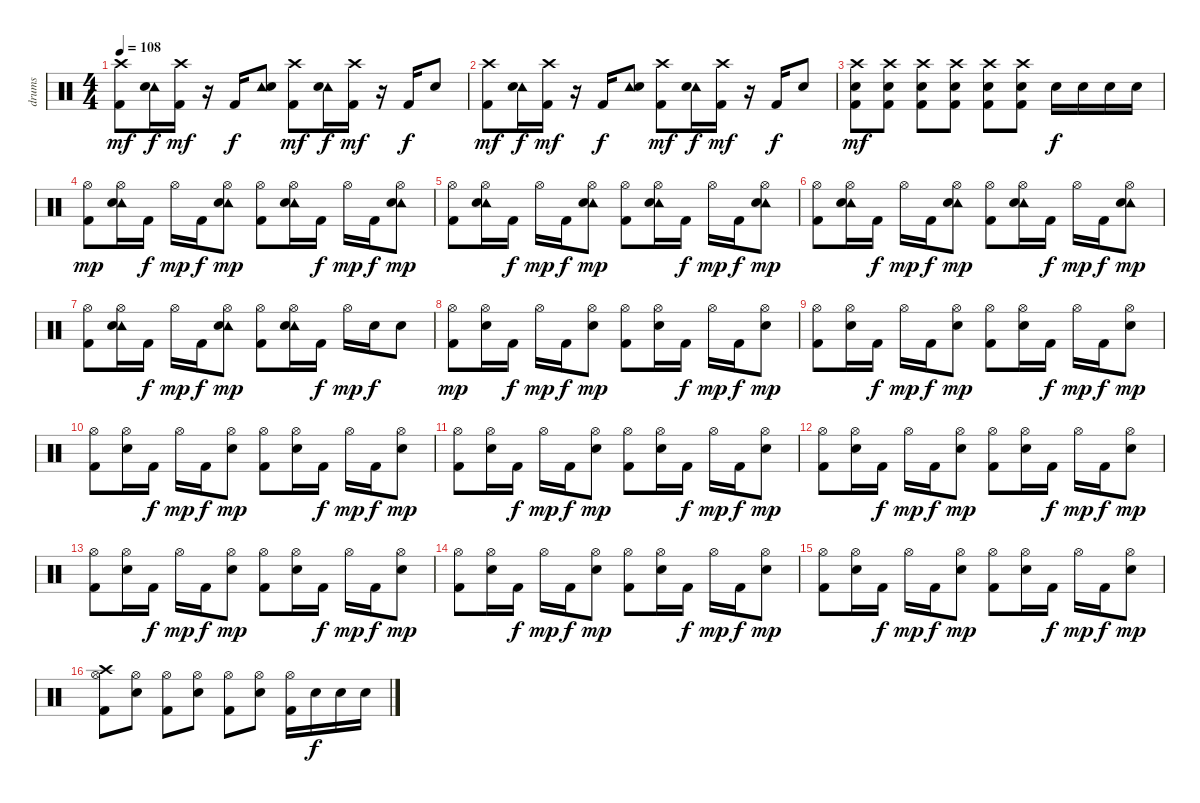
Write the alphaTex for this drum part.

\track ("drums" "drums") {instrument percussion}
\staff {score}
\articulation defaults
\ts (4 4)
\tempo 108
\clef neutral
\ks c
("Crash high (hit)" "Kick (hit) 2").8{dy mf} ("Tambourine (hit)" "Snare (hit) 2").16{dy f} ("Crash high (hit)" "Kick (hit) 2").16{dy mf} r.16 "Kick (hit) 2".16{dy f} ("Tambourine (hit)" "Snare (hit) 2").8 ("Crash high (hit)" "Kick (hit) 2").8{dy mf} ("Tambourine (hit)" "Snare (hit) 2").16{dy f} ("Crash high (hit)" "Kick (hit) 2").16{dy mf} r.16 "Kick (hit) 2".16{dy f} "Snare (hit) 2".8 |
("Crash high (hit)" "Kick (hit) 2").8{dy mf} ("Tambourine (hit)" "Snare (hit) 2").16{dy f} ("Crash high (hit)" "Kick (hit) 2").16{dy mf} r.16 "Kick (hit) 2".16{dy f} ("Tambourine (hit)" "Snare (hit) 2").8 ("Crash high (hit)" "Kick (hit) 2").8{dy mf} ("Tambourine (hit)" "Snare (hit) 2").16{dy f} ("Crash high (hit)" "Kick (hit) 2").16{dy mf} r.16 "Kick (hit) 2".16{dy f} "Snare (hit) 2".8 |
("Crash high (hit)" "Snare (hit) 2" "Kick (hit) 2").8{dy mf} ("Crash high (hit)" "Snare (hit) 2" "Kick (hit) 2").8 ("Crash high (hit)" "Snare (hit) 2" "Kick (hit) 2").8 ("Crash high (hit)" "Snare (hit) 2" "Kick (hit) 2").8 ("Crash high (hit)" "Snare (hit) 2" "Kick (hit) 2").8 ("Crash high (hit)" "Snare (hit) 2" "Kick (hit) 2").8 "Snare (hit) 2".16{dy f} "Snare (hit) 2".16 "Snare (hit) 2".16 "Snare (hit) 2".16 |
("Hi-Hat (open)" "Kick (hit) 2").8{dy mp} ("Tambourine (hit)" "Hi-Hat (open)" "Snare (hit) 2").16 "Kick (hit) 2".16{dy f} "Hi-Hat (open)".16{dy mp} "Kick (hit) 2".16{dy f} ("Tambourine (hit)" "Hi-Hat (open)" "Snare (hit) 2").8{dy mp} ("Hi-Hat (open)" "Kick (hit) 2").8 ("Tambourine (hit)" "Hi-Hat (open)" "Snare (hit) 2").16 "Kick (hit) 2".16{dy f} "Hi-Hat (open)".16{dy mp} "Kick (hit) 2".16{dy f} ("Tambourine (hit)" "Hi-Hat (open)" "Snare (hit) 2").8{dy mp} |
("Hi-Hat (open)" "Kick (hit) 2").8 ("Tambourine (hit)" "Hi-Hat (open)" "Snare (hit) 2").16 "Kick (hit) 2".16{dy f} "Hi-Hat (open)".16{dy mp} "Kick (hit) 2".16{dy f} ("Tambourine (hit)" "Hi-Hat (open)" "Snare (hit) 2").8{dy mp} ("Hi-Hat (open)" "Kick (hit) 2").8 ("Tambourine (hit)" "Hi-Hat (open)" "Snare (hit) 2").16 "Kick (hit) 2".16{dy f} "Hi-Hat (open)".16{dy mp} "Kick (hit) 2".16{dy f} ("Tambourine (hit)" "Hi-Hat (open)" "Snare (hit) 2").8{dy mp} |
("Hi-Hat (open)" "Kick (hit) 2").8 ("Tambourine (hit)" "Hi-Hat (open)" "Snare (hit) 2").16 "Kick (hit) 2".16{dy f} "Hi-Hat (open)".16{dy mp} "Kick (hit) 2".16{dy f} ("Tambourine (hit)" "Hi-Hat (open)" "Snare (hit) 2").8{dy mp} ("Hi-Hat (open)" "Kick (hit) 2").8 ("Tambourine (hit)" "Hi-Hat (open)" "Snare (hit) 2").16 "Kick (hit) 2".16{dy f} "Hi-Hat (open)".16{dy mp} "Kick (hit) 2".16{dy f} ("Tambourine (hit)" "Hi-Hat (open)" "Snare (hit) 2").8{dy mp} |
("Hi-Hat (open)" "Kick (hit) 2").8 ("Tambourine (hit)" "Hi-Hat (open)" "Snare (hit) 2").16 "Kick (hit) 2".16{dy f} "Hi-Hat (open)".16{dy mp} "Kick (hit) 2".16{dy f} ("Tambourine (hit)" "Hi-Hat (open)" "Snare (hit) 2").8{dy mp} ("Hi-Hat (open)" "Kick (hit) 2").8 ("Tambourine (hit)" "Hi-Hat (open)" "Snare (hit) 2").16 "Kick (hit) 2".16{dy f} "Hi-Hat (open)".16{dy mp} "Snare (hit) 2".16{dy f} "Snare (hit) 2".8 |
("Hi-Hat (open)" "Kick (hit) 2").8{dy mp} ("Hi-Hat (open)" "Snare (hit) 2").16 "Kick (hit) 2".16{dy f} "Hi-Hat (open)".16{dy mp} "Kick (hit) 2".16{dy f} ("Hi-Hat (open)" "Snare (hit) 2").8{dy mp} ("Hi-Hat (open)" "Kick (hit) 2").8 ("Hi-Hat (open)" "Snare (hit) 2").16 "Kick (hit) 2".16{dy f} "Hi-Hat (open)".16{dy mp} "Kick (hit) 2".16{dy f} ("Hi-Hat (open)" "Snare (hit) 2").8{dy mp} |
("Hi-Hat (open)" "Kick (hit) 2").8 ("Hi-Hat (open)" "Snare (hit) 2").16 "Kick (hit) 2".16{dy f} "Hi-Hat (open)".16{dy mp} "Kick (hit) 2".16{dy f} ("Hi-Hat (open)" "Snare (hit) 2").8{dy mp} ("Hi-Hat (open)" "Kick (hit) 2").8 ("Hi-Hat (open)" "Snare (hit) 2").16 "Kick (hit) 2".16{dy f} "Hi-Hat (open)".16{dy mp} "Kick (hit) 2".16{dy f} ("Hi-Hat (open)" "Snare (hit) 2").8{dy mp} |
("Hi-Hat (open)" "Kick (hit) 2").8 ("Hi-Hat (open)" "Snare (hit) 2").16 "Kick (hit) 2".16{dy f} "Hi-Hat (open)".16{dy mp} "Kick (hit) 2".16{dy f} ("Hi-Hat (open)" "Snare (hit) 2").8{dy mp} ("Hi-Hat (open)" "Kick (hit) 2").8 ("Hi-Hat (open)" "Snare (hit) 2").16 "Kick (hit) 2".16{dy f} "Hi-Hat (open)".16{dy mp} "Kick (hit) 2".16{dy f} ("Hi-Hat (open)" "Snare (hit) 2").8{dy mp} |
("Hi-Hat (open)" "Kick (hit) 2").8 ("Hi-Hat (open)" "Snare (hit) 2").16 "Kick (hit) 2".16{dy f} "Hi-Hat (open)".16{dy mp} "Kick (hit) 2".16{dy f} ("Hi-Hat (open)" "Snare (hit) 2").8{dy mp} ("Hi-Hat (open)" "Kick (hit) 2").8 ("Hi-Hat (open)" "Snare (hit) 2").16 "Kick (hit) 2".16{dy f} "Hi-Hat (open)".16{dy mp} "Kick (hit) 2".16{dy f} ("Hi-Hat (open)" "Snare (hit) 2").8{dy mp} |
("Hi-Hat (open)" "Kick (hit) 2").8 ("Hi-Hat (open)" "Snare (hit) 2").16 "Kick (hit) 2".16{dy f} "Hi-Hat (open)".16{dy mp} "Kick (hit) 2".16{dy f} ("Hi-Hat (open)" "Snare (hit) 2").8{dy mp} ("Hi-Hat (open)" "Kick (hit) 2").8 ("Hi-Hat (open)" "Snare (hit) 2").16 "Kick (hit) 2".16{dy f} "Hi-Hat (open)".16{dy mp} "Kick (hit) 2".16{dy f} ("Hi-Hat (open)" "Snare (hit) 2").8{dy mp} |
("Hi-Hat (open)" "Kick (hit) 2").8 ("Hi-Hat (open)" "Snare (hit) 2").16 "Kick (hit) 2".16{dy f} "Hi-Hat (open)".16{dy mp} "Kick (hit) 2".16{dy f} ("Hi-Hat (open)" "Snare (hit) 2").8{dy mp} ("Hi-Hat (open)" "Kick (hit) 2").8 ("Hi-Hat (open)" "Snare (hit) 2").16 "Kick (hit) 2".16{dy f} "Hi-Hat (open)".16{dy mp} "Kick (hit) 2".16{dy f} ("Hi-Hat (open)" "Snare (hit) 2").8{dy mp} |
("Hi-Hat (open)" "Kick (hit) 2").8 ("Hi-Hat (open)" "Snare (hit) 2").16 "Kick (hit) 2".16{dy f} "Hi-Hat (open)".16{dy mp} "Kick (hit) 2".16{dy f} ("Hi-Hat (open)" "Snare (hit) 2").8{dy mp} ("Hi-Hat (open)" "Kick (hit) 2").8 ("Hi-Hat (open)" "Snare (hit) 2").16 "Kick (hit) 2".16{dy f} "Hi-Hat (open)".16{dy mp} "Kick (hit) 2".16{dy f} ("Hi-Hat (open)" "Snare (hit) 2").8{dy mp} |
("Hi-Hat (open)" "Kick (hit) 2").8 ("Hi-Hat (open)" "Snare (hit) 2").16 "Kick (hit) 2".16{dy f} "Hi-Hat (open)".16{dy mp} "Kick (hit) 2".16{dy f} ("Hi-Hat (open)" "Snare (hit) 2").8{dy mp} ("Hi-Hat (open)" "Kick (hit) 2").8 ("Hi-Hat (open)" "Snare (hit) 2").16 "Kick (hit) 2".16{dy f} "Hi-Hat (open)".16{dy mp} "Kick (hit) 2".16{dy f} ("Hi-Hat (open)" "Snare (hit) 2").8{dy mp} |
("Crash high (hit)" "Hi-Hat (open)" "Kick (hit) 2").8 ("Hi-Hat (open)" "Snare (hit) 2").8 ("Hi-Hat (open)" "Kick (hit) 2").8 ("Hi-Hat (open)" "Snare (hit) 2").8 ("Hi-Hat (open)" "Kick (hit) 2").8 ("Hi-Hat (open)" "Snare (hit) 2").8 ("Hi-Hat (open)" "Kick (hit) 2").16 "Snare (hit) 2".16{dy f} "Snare (hit) 2".16 "Snare (hit) 2".16
